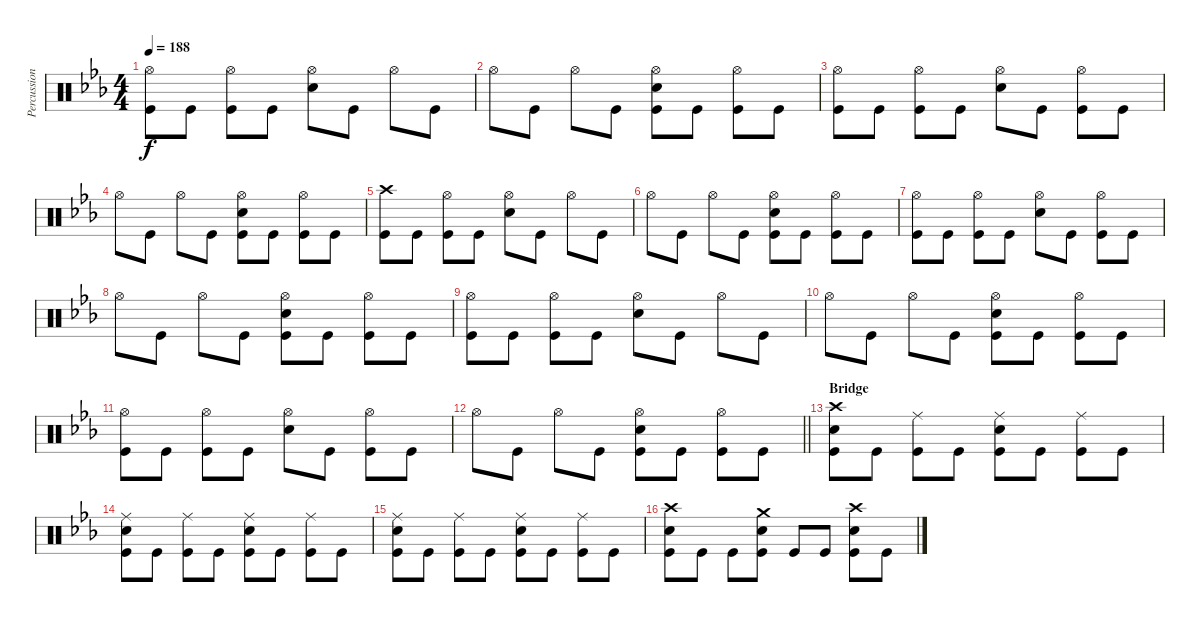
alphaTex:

\track ("Percussion" "Percussion") {instrument percussion}
\staff {score}
\articulation defaults
\ts (4 4)
\tempo 188
\clef neutral
\ks eb
("Hi-Hat (open)" "Kick (hit)").8{dy f} "Kick (hit)".8 ("Hi-Hat (open)" "Kick (hit)").8 "Kick (hit)".8 ("Hi-Hat (open)" "Electric Snare (hit)").8 "Kick (hit)".8 "Hi-Hat (open)".8 "Kick (hit)".8 |
"Hi-Hat (open)".8 "Kick (hit)".8 "Hi-Hat (open)".8 "Kick (hit)".8 ("Hi-Hat (open)" "Electric Snare (hit)" "Kick (hit)").8 "Kick (hit)".8 ("Hi-Hat (open)" "Kick (hit)").8 "Kick (hit)".8 |
("Hi-Hat (open)" "Kick (hit)").8 "Kick (hit)".8 ("Hi-Hat (open)" "Kick (hit)").8 "Kick (hit)".8 ("Hi-Hat (open)" "Electric Snare (hit)").8 "Kick (hit)".8 ("Hi-Hat (open)" "Kick (hit)").8 "Kick (hit)".8 |
"Hi-Hat (open)".8 "Kick (hit)".8 "Hi-Hat (open)".8 "Kick (hit)".8 ("Hi-Hat (open)" "Electric Snare (hit)" "Kick (hit)").8 "Kick (hit)".8 ("Hi-Hat (open)" "Kick (hit)").8 "Kick (hit)".8 |
("Crash high (hit)" "Kick (hit)").8 "Kick (hit)".8 ("Hi-Hat (open)" "Kick (hit)").8 "Kick (hit)".8 ("Hi-Hat (open)" "Electric Snare (hit)").8 "Kick (hit)".8 "Hi-Hat (open)".8 "Kick (hit)".8 |
"Hi-Hat (open)".8 "Kick (hit)".8 "Hi-Hat (open)".8 "Kick (hit)".8 ("Hi-Hat (open)" "Electric Snare (hit)" "Kick (hit)").8 "Kick (hit)".8 ("Hi-Hat (open)" "Kick (hit)").8 "Kick (hit)".8 |
("Hi-Hat (open)" "Kick (hit)").8 "Kick (hit)".8 ("Hi-Hat (open)" "Kick (hit)").8 "Kick (hit)".8 ("Hi-Hat (open)" "Electric Snare (hit)").8 "Kick (hit)".8 ("Hi-Hat (open)" "Kick (hit)").8 "Kick (hit)".8 |
"Hi-Hat (open)".8 "Kick (hit)".8 "Hi-Hat (open)".8 "Kick (hit)".8 ("Hi-Hat (open)" "Electric Snare (hit)" "Kick (hit)").8 "Kick (hit)".8 ("Hi-Hat (open)" "Kick (hit)").8 "Kick (hit)".8 |
("Hi-Hat (open)" "Kick (hit)").8 "Kick (hit)".8 ("Hi-Hat (open)" "Kick (hit)").8 "Kick (hit)".8 ("Hi-Hat (open)" "Electric Snare (hit)").8 "Kick (hit)".8 "Hi-Hat (open)".8 "Kick (hit)".8 |
"Hi-Hat (open)".8 "Kick (hit)".8 "Hi-Hat (open)".8 "Kick (hit)".8 ("Hi-Hat (open)" "Electric Snare (hit)" "Kick (hit)").8 "Kick (hit)".8 ("Hi-Hat (open)" "Kick (hit)").8 "Kick (hit)".8 |
("Hi-Hat (open)" "Kick (hit)").8 "Kick (hit)".8 ("Hi-Hat (open)" "Kick (hit)").8 "Kick (hit)".8 ("Hi-Hat (open)" "Electric Snare (hit)").8 "Kick (hit)".8 ("Hi-Hat (open)" "Kick (hit)").8 "Kick (hit)".8 |
\barLineRight lightlight "Hi-Hat (open)".8 "Kick (hit)".8 "Hi-Hat (open)".8 "Kick (hit)".8
("Hi-Hat (open)" "Electric Snare (hit)" "Kick (hit)").8 "Kick (hit)".8 ("Hi-Hat (open)" "Kick (hit)").8 "Kick (hit)".8 |
\section ("" "Bridge")
("Crash high (hit)" "Electric Snare (hit)" "Kick (hit)").8 "Kick (hit)".8 ("Ride (middle)" "Kick (hit)").8 "Kick (hit)".8 ("Ride (middle)" "Electric Snare (hit)" "Kick (hit)").8 "Kick (hit)".8 ("Ride (middle)" "Kick (hit)").8 "Kick (hit)".8 |
("Ride (middle)" "Electric Snare (hit)" "Kick (hit)").8 "Kick (hit)".8 ("Ride (middle)" "Kick (hit)").8 "Kick (hit)".8 ("Ride (middle)" "Electric Snare (hit)" "Kick (hit)").8 "Kick (hit)".8 ("Ride (middle)" "Kick (hit)").8 "Kick (hit)".8 |
("Ride (middle)" "Electric Snare (hit)" "Kick (hit)").8 "Kick (hit)".8 ("Ride (middle)" "Kick (hit)").8 "Kick (hit)".8 ("Ride (middle)" "Electric Snare (hit)" "Kick (hit)").8 "Kick (hit)".8 ("Ride (middle)" "Kick (hit)").8 "Kick (hit)".8 |
("Crash high (hit)" "Electric Snare (hit)" "Kick (hit)").8 "Kick (hit)".8 "Kick (hit)".8 ("Crash medium (hit)" "Electric Snare (hit)" "Kick (hit)").8 "Kick (hit)".8 "Kick (hit)".8 ("Crash high (hit)" "Electric Snare (hit)" "Kick (hit)").8 "Kick (hit)".8
